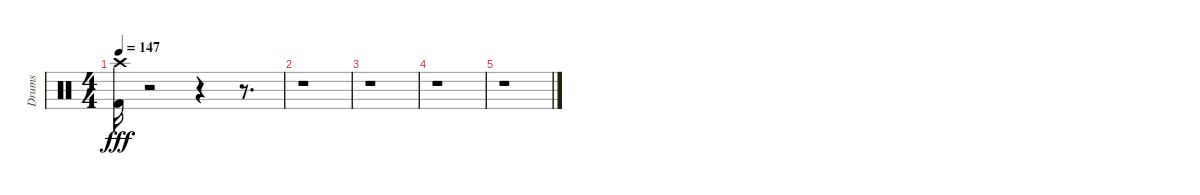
\track ("Drums" "Drums") {instrument percussion}
\staff {score}
\articulation defaults
\ts (4 4)
\tempo 147
\clef neutral
\ks aminor
("Kick (hit) 2" "Crash high (hit)").16{dy fff} r.2 r.4 r.8{d} |
r.1 |
r.1 |
r.1 |
r.1
